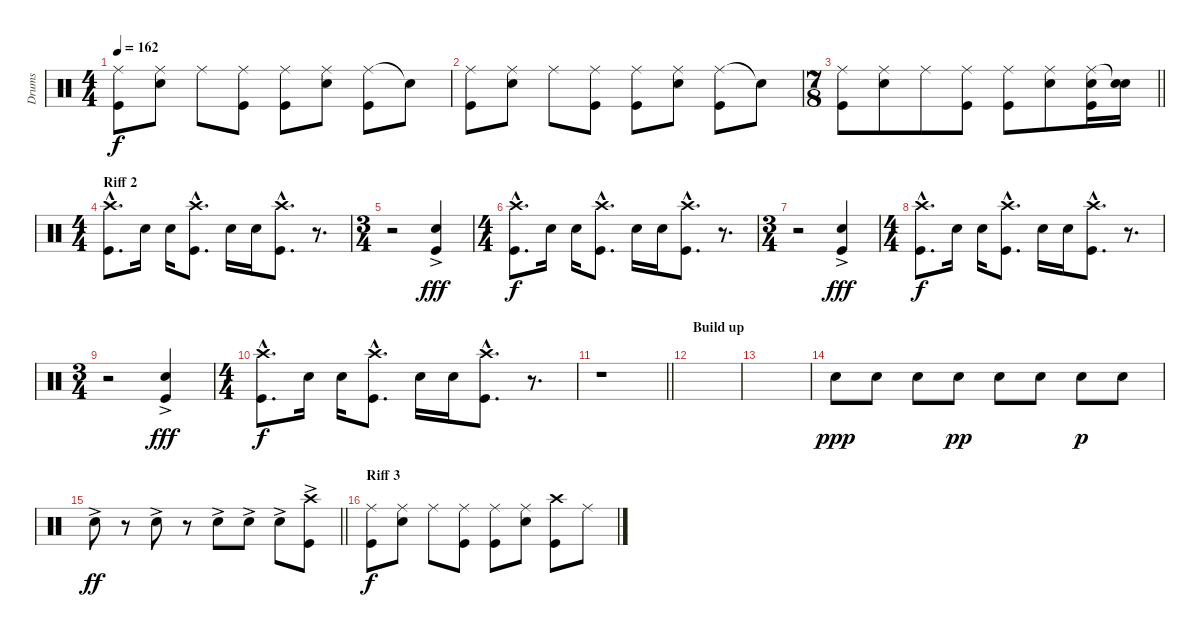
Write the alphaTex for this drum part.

\track ("Drums" "Drums") {instrument percussion}
\staff {score}
\articulation defaults
\ts (4 4)
\tempo 162
\clef neutral
\ks c
("Ride (middle)" "Kick (hit)").8{dy f} ("Ride (middle)" "Snare (hit) 2").8 "Ride (middle)".8 ("Ride (middle)" "Kick (hit)").8 ("Ride (middle)" "Kick (hit)").8 ("Ride (middle)" "Snare (hit) 2").8 ("Ride (middle)" "Kick (hit)").8 "Snare (hit)"{t}.8 |
("Ride (middle)" "Kick (hit)").8 ("Ride (middle)" "Snare (hit) 2").8 "Ride (middle)".8 ("Ride (middle)" "Kick (hit)").8 ("Ride (middle)" "Kick (hit)").8 ("Ride (middle)" "Snare (hit) 2").8 ("Ride (middle)" "Kick (hit)").8 "Snare (hit)"{t}.8 |
\ts (7 8)
\barLineRight lightlight
("Ride (middle)" "Kick (hit)").8 ("Ride (middle)" "Snare (hit) 2").8 "Ride (middle)".8 ("Ride (middle)" "Kick (hit)").8 ("Ride (middle)" "Kick (hit)").8 ("Ride (middle)" "Snare (hit) 2").8 ("Ride (middle)" "Snare (hit) 2" "Kick (hit)").16 ("Snare (hit)"{t} "Snare (hit) 2").16 |
\ts (4 4)
\section ("" "Riff 2")
("Crash high (hit)"{hac} "Kick (hit)"{hac}).8{d} "Snare (hit) 2".16 "Snare (hit) 2".16 ("Crash high (hit)"{hac} "Kick (hit)"{hac}).8{d} "Snare (hit) 2".16 "Snare (hit) 2".16 ("Crash high (hit)"{hac} "Kick (hit)"{hac}).8{d} r.8{d} |
\ts (3 4)
r.2 ("Snare (hit) 2"{ac} "Kick (hit)").4{dy fff} |
\ts (4 4)
("Crash high (hit)"{hac} "Kick (hit)"{hac}).8{d dy f} "Snare (hit) 2".16 "Snare (hit) 2".16 ("Crash high (hit)"{hac} "Kick (hit)"{hac}).8{d} "Snare (hit) 2".16 "Snare (hit) 2".16 ("Crash high (hit)"{hac} "Kick (hit)"{hac}).8{d} r.8{d} |
\ts (3 4)
r.2 ("Snare (hit) 2"{ac} "Kick (hit)").4{dy fff} |
\ts (4 4)
("Crash high (hit)"{hac} "Kick (hit)"{hac}).8{d dy f} "Snare (hit) 2".16 "Snare (hit) 2".16 ("Crash high (hit)"{hac} "Kick (hit)"{hac}).8{d} "Snare (hit) 2".16 "Snare (hit) 2".16 ("Crash high (hit)"{hac} "Kick (hit)"{hac}).8{d} r.8{d} |
\ts (3 4)
r.2 ("Snare (hit) 2"{ac} "Kick (hit)").4{dy fff} |
\ts (4 4)
("Crash high (hit)"{hac} "Kick (hit)"{hac}).8{d dy f} "Snare (hit) 2".16 "Snare (hit) 2".16 ("Crash high (hit)"{hac} "Kick (hit)"{hac}).8{d} "Snare (hit) 2".16 "Snare (hit) 2".16 ("Crash high (hit)"{hac} "Kick (hit)"{hac}).8{d} r.8{d} |
\barLineRight lightlight
r.1 |
\section ("" "Build up")
|
|
"Snare (hit) 2".8{dy ppp} "Snare (hit) 2".8 "Snare (hit) 2".8 "Snare (hit) 2".8{dy pp} "Snare (hit) 2".8 "Snare (hit) 2".8 "Snare (hit) 2".8{dy p} "Snare (hit) 2".8 |
\barLineRight lightlight "Snare (hit) 2"{ac}.8{dy ff}
r.8 "Snare (hit) 2"{ac}.8 r.8 "Snare (hit) 2"{ac}.8 "Snare (hit) 2"{ac}.8 "Snare (hit) 2"{ac}.8 ("Crash high (hit)"{ac} "Kick (hit)"{ac}).8 |
\section ("" "Riff 3")
("Ride (middle)" "Kick (hit)").8{dy f} ("Ride (middle)" "Snare (hit) 2").8 "Ride (middle)".8 ("Ride (middle)" "Kick (hit)").8 ("Ride (middle)" "Kick (hit)").8 ("Ride (middle)" "Snare (hit) 2").8 ("Crash high (hit)" "Kick (hit)").8 "Ride (middle)".8
